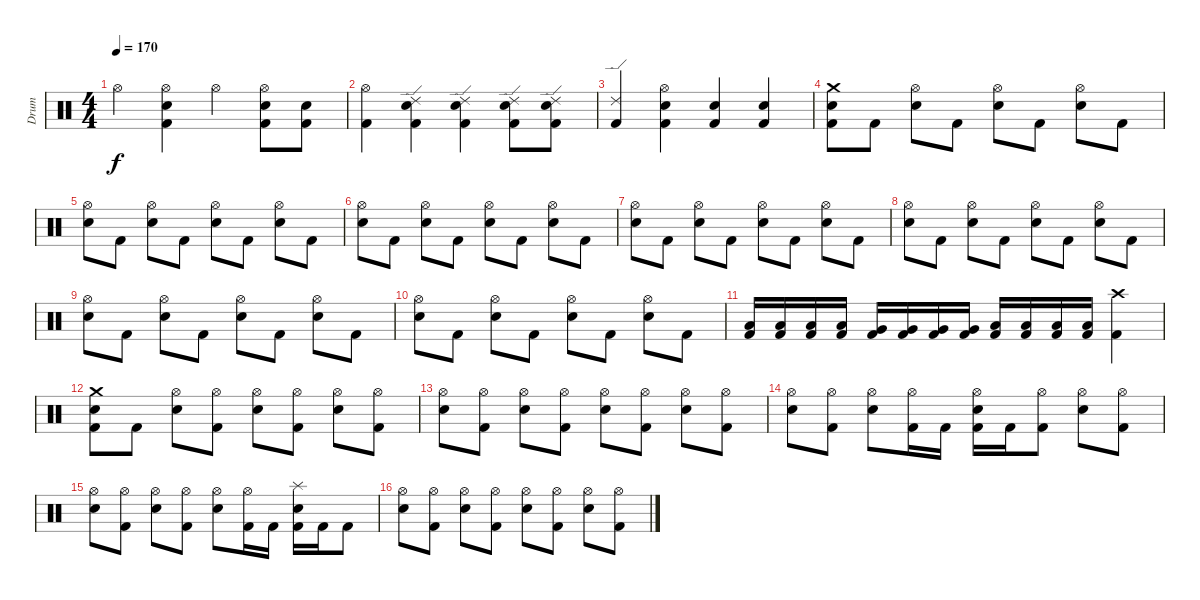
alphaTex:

\track ("Drum" "Drum") {instrument percussion}
\staff {score}
\articulation defaults
\ts (4 4)
\tempo 170
\clef neutral
\ks c "Hi-Hat (open)".4{dy f}
("Hi-Hat (open)" "Electric Snare (hit)" "Kick (hit) 2").4 "Hi-Hat (open)".4 ("Hi-Hat (open)" "Electric Snare (hit)" "Kick (hit) 2").8 ("Electric Snare (hit)" "Kick (hit) 2").8 |
("Hi-Hat (open)" "Kick (hit) 2").4 ("Ride (edge) 2" "Electric Snare (hit)" "Kick (hit) 2").4 ("Ride (edge) 2" "Electric Snare (hit)" "Kick (hit) 2").4 ("Ride (edge) 2" "Electric Snare (hit)" "Kick (hit) 2").8 ("Ride (edge) 2" "Electric Snare (hit)" "Kick (hit) 2").8 |
("Ride (edge) 2" "Kick (hit) 2").4 ("Hi-Hat (open)" "Electric Snare (hit)" "Kick (hit) 2").4 ("Electric Snare (hit)" "Kick (hit) 2").4 ("Electric Snare (hit)" "Kick (hit) 2").4 |
("Crash medium (hit)" "Electric Snare (hit)" "Kick (hit) 2").8 "Kick (hit) 2".8 ("Hi-Hat (open)" "Electric Snare (hit)").8 "Kick (hit) 2".8 ("Hi-Hat (open)" "Electric Snare (hit)").8 "Kick (hit) 2".8 ("Hi-Hat (open)" "Electric Snare (hit)").8 "Kick (hit) 2".8 |
("Hi-Hat (open)" "Electric Snare (hit)").8 "Kick (hit) 2".8 ("Hi-Hat (open)" "Electric Snare (hit)").8 "Kick (hit) 2".8 ("Hi-Hat (open)" "Electric Snare (hit)").8 "Kick (hit) 2".8 ("Hi-Hat (open)" "Electric Snare (hit)").8 "Kick (hit) 2".8 |
("Hi-Hat (open)" "Electric Snare (hit)").8 "Kick (hit) 2".8 ("Hi-Hat (open)" "Electric Snare (hit)").8 "Kick (hit) 2".8 ("Hi-Hat (open)" "Electric Snare (hit)").8 "Kick (hit) 2".8 ("Hi-Hat (open)" "Electric Snare (hit)").8 "Kick (hit) 2".8 |
("Hi-Hat (open)" "Electric Snare (hit)").8 "Kick (hit) 2".8 ("Hi-Hat (open)" "Electric Snare (hit)").8 "Kick (hit) 2".8 ("Hi-Hat (open)" "Electric Snare (hit)").8 "Kick (hit) 2".8 ("Hi-Hat (open)" "Electric Snare (hit)").8 "Kick (hit) 2".8 |
("Hi-Hat (open)" "Electric Snare (hit)").8 "Kick (hit) 2".8 ("Hi-Hat (open)" "Electric Snare (hit)").8 "Kick (hit) 2".8 ("Hi-Hat (open)" "Electric Snare (hit)").8 "Kick (hit) 2".8 ("Hi-Hat (open)" "Electric Snare (hit)").8 "Kick (hit) 2".8 |
("Hi-Hat (open)" "Electric Snare (hit)").8 "Kick (hit) 2".8 ("Hi-Hat (open)" "Electric Snare (hit)").8 "Kick (hit) 2".8 ("Hi-Hat (open)" "Electric Snare (hit)").8 "Kick (hit) 2".8 ("Hi-Hat (open)" "Electric Snare (hit)").8 "Kick (hit) 2".8 |
("Hi-Hat (open)" "Electric Snare (hit)").8 "Kick (hit) 2".8 ("Hi-Hat (open)" "Electric Snare (hit)").8 "Kick (hit) 2".8 ("Hi-Hat (open)" "Electric Snare (hit)").8 "Kick (hit) 2".8 ("Hi-Hat (open)" "Electric Snare (hit)").8 "Kick (hit) 2".8 |
("Low Tom (hit)" "Kick (hit) 2").16 ("Low Tom (hit)" "Kick (hit) 2").16 ("Low Tom (hit)" "Kick (hit) 2").16 ("Low Tom (hit)" "Kick (hit) 2").16 ("Very Low Tom (hit)" "Kick (hit) 2").16 ("Very Low Tom (hit)" "Kick (hit) 2").16 ("Very Low Tom (hit)" "Kick (hit) 2").16 ("Very Low Tom (hit)" "Kick (hit) 2").16 ("Low Floor Tom (hit)" "Kick (hit) 2").16 ("Low Floor Tom (hit)" "Kick (hit) 2").16 ("Low Floor Tom (hit)" "Kick (hit) 2").16 ("Low Floor Tom (hit)" "Kick (hit) 2").16 ("Crash high (hit)" "Kick (hit) 2").4 |
("Crash medium (hit)" "Electric Snare (hit)" "Kick (hit) 2").8 "Kick (hit) 2".8 ("Hi-Hat (open)" "Electric Snare (hit)").8 ("Hi-Hat (open)" "Kick (hit) 2").8 ("Hi-Hat (open)" "Electric Snare (hit)").8 ("Hi-Hat (open)" "Kick (hit) 2").8 ("Hi-Hat (open)" "Electric Snare (hit)").8 ("Hi-Hat (open)" "Kick (hit) 2").8 |
("Hi-Hat (open)" "Electric Snare (hit)").8 ("Hi-Hat (open)" "Kick (hit) 2").8 ("Hi-Hat (open)" "Electric Snare (hit)").8 ("Hi-Hat (open)" "Kick (hit) 2").8 ("Hi-Hat (open)" "Electric Snare (hit)").8 ("Hi-Hat (open)" "Kick (hit) 2").8 ("Hi-Hat (open)" "Electric Snare (hit)").8 ("Hi-Hat (open)" "Kick (hit) 2").8 |
("Hi-Hat (open)" "Electric Snare (hit)").8 ("Hi-Hat (open)" "Kick (hit) 2").8 ("Hi-Hat (open)" "Electric Snare (hit)").8 ("Hi-Hat (open)" "Kick (hit) 2").16 "Kick (hit) 2".16 ("Hi-Hat (open)" "Electric Snare (hit)" "Kick (hit) 2").16 "Kick (hit) 2".16 ("Hi-Hat (open)" "Kick (hit) 2").8 ("Hi-Hat (open)" "Electric Snare (hit)").8 ("Hi-Hat (open)" "Kick (hit) 2").8 |
("Hi-Hat (open)" "Electric Snare (hit)").8 ("Hi-Hat (open)" "Kick (hit) 2").8 ("Hi-Hat (open)" "Electric Snare (hit)").8 ("Hi-Hat (open)" "Kick (hit) 2").8 ("Hi-Hat (open)" "Electric Snare (hit)").8 ("Hi-Hat (open)" "Kick (hit) 2").16 "Kick (hit) 2".16 ("Splash (hit)" "Electric Snare (hit)" "Kick (hit) 2").16 "Kick (hit) 2".16 "Kick (hit) 2".8 |
("Hi-Hat (open)" "Electric Snare (hit)").8 ("Hi-Hat (open)" "Kick (hit) 2").8 ("Hi-Hat (open)" "Electric Snare (hit)").8 ("Hi-Hat (open)" "Kick (hit) 2").8 ("Hi-Hat (open)" "Electric Snare (hit)").8 ("Hi-Hat (open)" "Kick (hit) 2").8 ("Hi-Hat (open)" "Electric Snare (hit)").8 ("Hi-Hat (open)" "Kick (hit) 2").8
